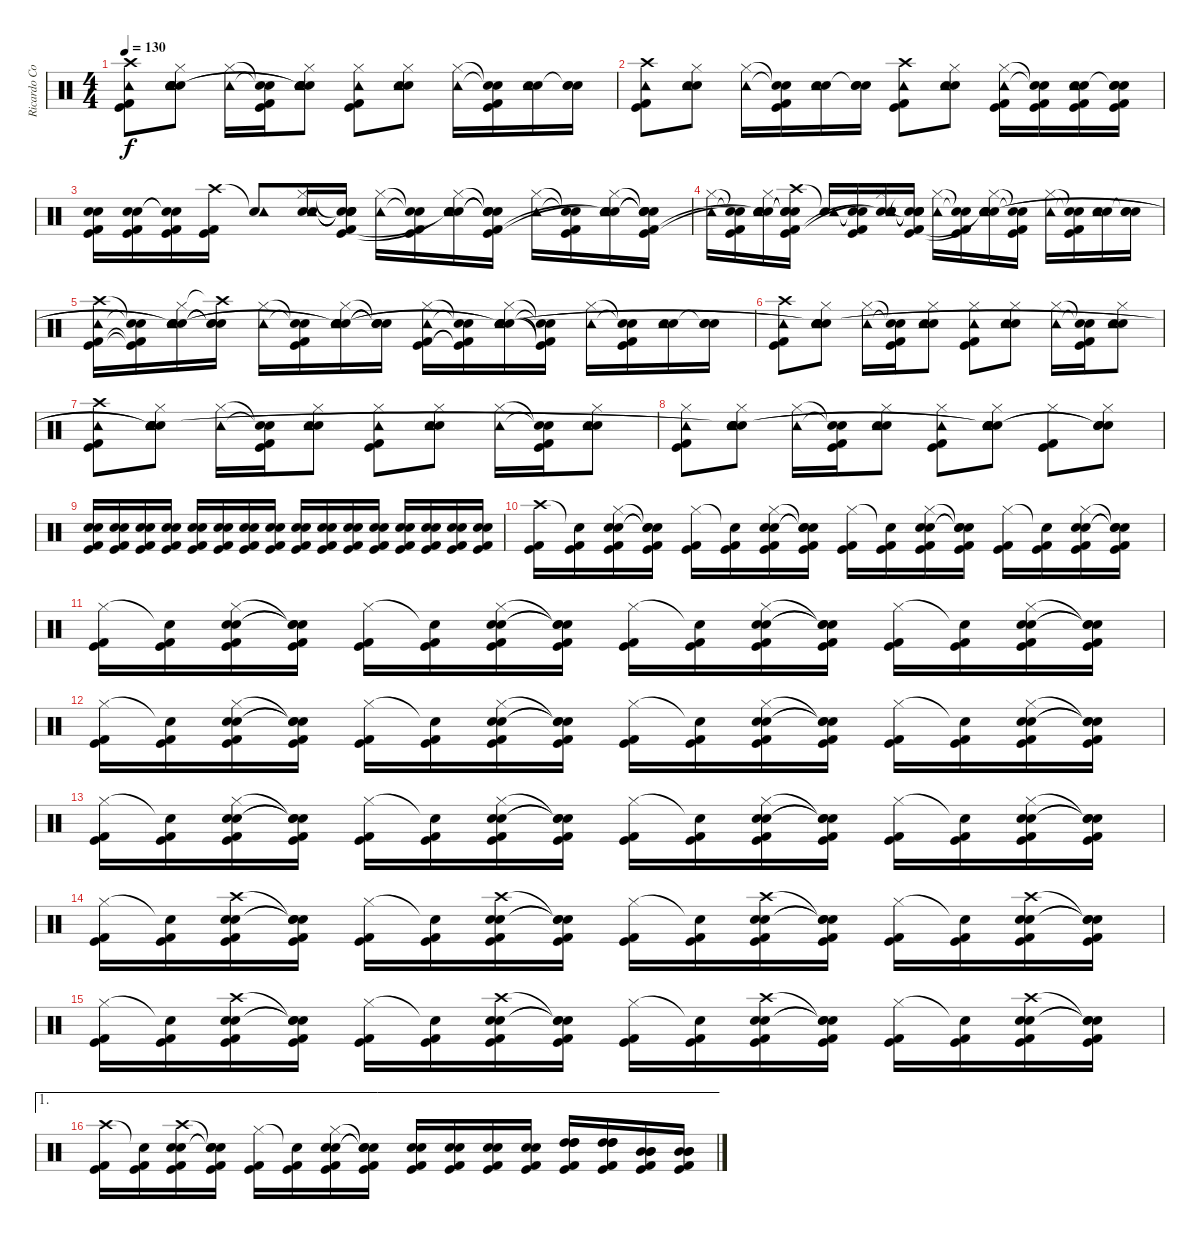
\track ("Ricardo Confessori" "Ricardo Co") {instrument percussion}
\staff {score}
\articulation defaults
\ts (4 4)
\tempo 130
\clef neutral
\ks c
("Crash high (hit)" "Tambourine (hit)" "Kick (hit)" "Kick (hit) 2").8{dy f} ("Hi-Hat (closed)" "Electric Snare (hit)" "Snare (hit) 2" "Tambourine (hit)" "Snare (hit)"{t} "Snare (hit)"{t}).8 ("Hi-Hat (closed)" "Tambourine (hit)").16 ("Snare (hit)"{t} "Snare (hit)"{t} "Kick (hit) 2" "Kick (hit)").16 ("Hi-Hat (closed)" "Electric Snare (hit)" "Snare (hit) 2" "Tambourine (hit)" "Snare (hit)"{t} "Snare (hit)"{t}).8 ("Hi-Hat (closed)" "Tambourine (hit)" "Kick (hit)" "Kick (hit) 2").8 ("Hi-Hat (closed)" "Electric Snare (hit)" "Snare (hit) 2" "Tambourine (hit)").8 ("Hi-Hat (closed)" "Tambourine (hit)").16 ("Snare (hit)"{t} "Snare (hit)"{t} "Kick (hit)" "Kick (hit) 2").16 ("Electric Snare (hit)" "Snare (hit) 2" "Tambourine (hit)").16 ("Electric Snare (hit)" "Snare (hit) 2" "Snare (hit)"{t}).16 |
("Crash high (hit)" "Tambourine (hit)" "Kick (hit)" "Kick (hit) 2").8 ("Hi-Hat (closed)" "Electric Snare (hit)" "Snare (hit) 2" "Tambourine (hit)").8 ("Hi-Hat (closed)" "Tambourine (hit)").16 ("Snare (hit)"{t} "Snare (hit)"{t} "Kick (hit)" "Kick (hit) 2").16 ("Electric Snare (hit)" "Snare (hit) 2" "Tambourine (hit)").16 ("Electric Snare (hit)" "Snare (hit) 2" "Snare (hit)"{t}).16 ("Crash high (hit)" "Tambourine (hit)" "Kick (hit) 2" "Kick (hit)").8 ("Hi-Hat (closed)" "Electric Snare (hit)" "Snare (hit) 2" "Tambourine (hit)").8 ("Hi-Hat (closed)" "Tambourine (hit)" "Kick (hit)" "Kick (hit) 2").16 ("Snare (hit)"{t} "Snare (hit)"{t} "Kick (hit)" "Kick (hit) 2").16 ("Electric Snare (hit)" "Snare (hit) 2" "Tambourine (hit)" "Kick (hit)" "Kick (hit) 2").16 ("Electric Snare (hit)" "Snare (hit) 2" "Snare (hit)"{t} "Kick (hit) 2" "Kick (hit)").16 |
("Electric Snare (hit)" "Snare (hit) 2" "Kick (hit)" "Kick (hit) 2").16 ("Electric Snare (hit)" "Snare (hit) 2" "Kick (hit)" "Kick (hit) 2").16 ("Snare (hit)"{t} "Snare (hit)"{t} "Kick (hit)" "Kick (hit) 2").16 ("Crash high (hit)" "Kick (hit)" "Kick (hit) 2").16 ("Snare (hit)"{t} "Tambourine (hit)").8 ("Hi-Hat (closed)" "Electric Snare (hit)" "Snare (hit) 2" "Tambourine (hit)").16 ("Snare (hit)"{t} "Snare (hit)"{t} "Snare (hit)"{t} "Snare (hit)"{t} "Kick (hit) 2" "Kick (hit)").16 ("Hi-Hat (closed)" "Tambourine (hit)").16 ("Snare (hit)"{t} "Snare (hit)"{t} "Kick (hit)" "Kick (hit) 2").16 ("Hi-Hat (closed)" "Electric Snare (hit)" "Snare (hit) 2" "Tambourine (hit)" "Snare (hit)"{t} "Snare (hit)"{t}).16 ("Snare (hit)"{t} "Snare (hit) 2"{t} "Snare (hit)"{t} "Snare (hit)"{t} "Kick (hit)" "Kick (hit) 2").16 ("Hi-Hat (closed)" "Tambourine (hit)").16 ("Snare (hit)"{t} "Snare (hit)"{t} "Kick (hit)" "Kick (hit) 2").16 ("Hi-Hat (closed)" "Electric Snare (hit)" "Snare (hit) 2" "Tambourine (hit)" "Snare (hit)"{t} "Snare (hit)"{t}).16 ("Snare (hit)"{t} "Snare (hit)"{t} "Snare (hit)"{t} "Snare (hit)"{t} "Kick (hit)" "Kick (hit) 2").16 |
("Hi-Hat (closed)" "Tambourine (hit)").16 ("Snare (hit)"{t} "Snare (hit)"{t} "Kick (hit) 2" "Kick (hit)").16 ("Hi-Hat (closed)" "Electric Snare (hit)" "Snare (hit) 2" "Tambourine (hit)" "Snare (hit)"{t} "Snare (hit)"{t}).16 ("Crash high (hit)" "Snare (hit)"{t} "Snare (hit)"{t} "Snare (hit)"{t} "Kick (hit) 2" "Kick (hit)").16 ("Snare (hit)"{t} "Tambourine (hit)").16 ("Snare (hit)"{t} "Snare (hit)"{t} "Kick (hit)" "Kick (hit) 2").16 ("Hi-Hat (closed)" "Electric Snare (hit)" "Snare (hit) 2" "Tambourine (hit)" "Snare (hit)"{t} "Snare (hit)"{t}).16 ("Snare (hit)"{t} "Snare (hit)"{t} "Snare (hit)"{t} "Snare (hit)"{t} "Kick (hit) 2" "Kick (hit)").16 ("Hi-Hat (closed)" "Tambourine (hit)").16 ("Snare (hit)"{t} "Snare (hit)"{t} "Kick (hit)" "Kick (hit) 2").16 ("Hi-Hat (closed)" "Electric Snare (hit)" "Snare (hit) 2" "Tambourine (hit)" "Snare (hit)"{t} "Snare (hit)"{t}).16 ("Snare (hit)"{t} "Snare (hit)"{t} "Kick (hit)" "Kick (hit) 2").16 ("Hi-Hat (closed)" "Tambourine (hit)").16 ("Snare (hit)"{t} "Snare (hit)"{t} "Kick (hit) 2" "Kick (hit)").16 ("Electric Snare (hit)" "Snare (hit) 2" "Tambourine (hit)").16 ("Electric Snare (hit)" "Snare (hit) 2" "Snare (hit)"{t}).16 |
("Crash high (hit)" "Tambourine (hit)" "Kick (hit) 2" "Kick (hit)").16 ("Snare (hit)"{t} "Snare (hit)"{t} "Kick (hit) 2"{t} "Kick (hit)"{t}).16 ("Hi-Hat (closed)" "Electric Snare (hit)" "Snare (hit) 2" "Tambourine (hit)" "Snare (hit)"{t} "Snare (hit)"{t}).16 ("Crash high (hit)"{t} "Snare (hit)"{t} "Snare (hit)"{t} "Snare (hit)"{t}).16 ("Hi-Hat (closed)" "Tambourine (hit)").16 ("Snare (hit)"{t} "Snare (hit)"{t} "Kick (hit)" "Kick (hit) 2").16 ("Hi-Hat (closed)" "Electric Snare (hit)" "Snare (hit) 2" "Tambourine (hit)" "Snare (hit)"{t} "Snare (hit)"{t}).16 ("Snare (hit)"{t} "Snare (hit)"{t} "Snare (hit)"{t} "Snare (hit)"{t}).16 ("Hi-Hat (closed)" "Tambourine (hit)" "Kick (hit) 2" "Kick (hit)").16 ("Snare (hit)"{t} "Snare (hit)"{t} "Kick (hit)"{t} "Kick (hit) 2"{t}).16 ("Hi-Hat (closed)" "Electric Snare (hit)" "Snare (hit) 2" "Tambourine (hit)" "Snare (hit)"{t} "Snare (hit)"{t}).16 ("Snare (hit)"{t} "Snare (hit)"{t} "Kick (hit)"{t} "Kick (hit) 2"{t}).16 ("Hi-Hat (closed)" "Tambourine (hit)").16 ("Snare (hit)"{t} "Snare (hit)"{t} "Kick (hit) 2" "Kick (hit)").16 ("Electric Snare (hit)" "Snare (hit) 2" "Tambourine (hit)").16 ("Electric Snare (hit)" "Snare (hit) 2" "Snare (hit)"{t}).16 |
("Crash high (hit)" "Tambourine (hit)" "Kick (hit) 2" "Kick (hit)").8 ("Hi-Hat (closed)" "Electric Snare (hit)" "Snare (hit) 2" "Tambourine (hit)" "Snare (hit)"{t} "Snare (hit)"{t}).8 ("Hi-Hat (closed)" "Tambourine (hit)").16 ("Snare (hit)"{t} "Snare (hit)"{t} "Kick (hit)" "Kick (hit) 2").16 ("Hi-Hat (closed)" "Electric Snare (hit)" "Snare (hit) 2" "Tambourine (hit)").8 ("Hi-Hat (closed)" "Tambourine (hit)" "Kick (hit)" "Kick (hit) 2").8 ("Hi-Hat (closed)" "Electric Snare (hit)" "Snare (hit) 2" "Tambourine (hit)").8 ("Hi-Hat (closed)" "Tambourine (hit)").16 ("Snare (hit)"{t} "Snare (hit)"{t} "Kick (hit)" "Kick (hit) 2").16 ("Hi-Hat (closed)" "Electric Snare (hit)" "Snare (hit) 2" "Tambourine (hit)").8 |
("Crash high (hit)" "Tambourine (hit)" "Kick (hit) 2" "Kick (hit)").8 ("Hi-Hat (closed)" "Electric Snare (hit)" "Snare (hit) 2" "Tambourine (hit)" "Snare (hit)"{t} "Snare (hit)"{t}).8 ("Hi-Hat (closed)" "Tambourine (hit)").16 ("Snare (hit)"{t} "Snare (hit)"{t} "Kick (hit)" "Kick (hit) 2").16 ("Hi-Hat (closed)" "Electric Snare (hit)" "Snare (hit) 2" "Tambourine (hit)").8 ("Hi-Hat (closed)" "Tambourine (hit)" "Kick (hit)" "Kick (hit) 2").8 ("Hi-Hat (closed)" "Electric Snare (hit)" "Snare (hit) 2" "Tambourine (hit)").8 ("Hi-Hat (closed)" "Tambourine (hit)").16 ("Snare (hit)"{t} "Snare (hit)"{t} "Kick (hit)" "Kick (hit) 2").16 ("Hi-Hat (closed)" "Electric Snare (hit)" "Snare (hit) 2" "Tambourine (hit)").8 |
("Hi-Hat (closed)" "Tambourine (hit)" "Kick (hit)" "Kick (hit) 2").8 ("Hi-Hat (closed)" "Electric Snare (hit)" "Snare (hit) 2" "Tambourine (hit)" "Snare (hit)"{t} "Snare (hit)"{t}).8 ("Hi-Hat (closed)" "Tambourine (hit)").16 ("Snare (hit)"{t} "Snare (hit)"{t} "Kick (hit) 2" "Kick (hit)").16 ("Hi-Hat (closed)" "Electric Snare (hit)" "Snare (hit) 2" "Tambourine (hit)").8 ("Hi-Hat (closed)" "Tambourine (hit)" "Kick (hit) 2" "Kick (hit)").8 ("Hi-Hat (closed)" "Electric Snare (hit)" "Snare (hit) 2" "Tambourine (hit)" "Snare (hit)"{t} "Snare (hit)"{t}).8 ("Hi-Hat (closed)" "Kick (hit)" "Kick (hit) 2").8 ("Hi-Hat (closed)" "Electric Snare (hit)" "Snare (hit) 2" "Snare (hit)"{t} "Snare (hit)"{t}).8 |
("Electric Snare (hit)" "Snare (hit) 2" "Kick (hit) 2" "Kick (hit)").16 ("Electric Snare (hit)" "Snare (hit) 2" "Kick (hit) 2" "Kick (hit)").16 ("Electric Snare (hit)" "Snare (hit) 2" "Kick (hit) 2" "Kick (hit)").16 ("Electric Snare (hit)" "Snare (hit) 2" "Kick (hit) 2" "Kick (hit)").16 ("Electric Snare (hit)" "Snare (hit) 2" "Kick (hit) 2" "Kick (hit)").16 ("Electric Snare (hit)" "Snare (hit) 2" "Kick (hit) 2" "Kick (hit)").16 ("Electric Snare (hit)" "Snare (hit) 2" "Kick (hit) 2" "Kick (hit)").16 ("Electric Snare (hit)" "Snare (hit) 2" "Kick (hit) 2" "Kick (hit)").16 ("Electric Snare (hit)" "Snare (hit) 2" "Kick (hit) 2" "Kick (hit)").16 ("Electric Snare (hit)" "Snare (hit) 2" "Kick (hit) 2" "Kick (hit)").16 ("Electric Snare (hit)" "Snare (hit) 2" "Kick (hit) 2" "Kick (hit)").16 ("Electric Snare (hit)" "Snare (hit) 2" "Kick (hit) 2" "Kick (hit)").16 ("Electric Snare (hit)" "Snare (hit) 2" "Kick (hit) 2" "Kick (hit)").16 ("Electric Snare (hit)" "Snare (hit) 2" "Kick (hit) 2" "Kick (hit)").16 ("Electric Snare (hit)" "Snare (hit) 2" "Kick (hit) 2" "Kick (hit)").16 ("Electric Snare (hit)" "Snare (hit) 2" "Kick (hit) 2" "Kick (hit)").16 |
("Crash high (hit)" "Kick (hit) 2" "Kick (hit)").16 ("Snare (hit)"{t} "Kick (hit) 2" "Kick (hit)").16 ("Hi-Hat (closed)" "Electric Snare (hit)" "Snare (hit) 2" "Kick (hit) 2" "Kick (hit)").16 ("Snare (hit)"{t} "Snare (hit)"{t} "Snare (hit)"{t} "Kick (hit) 2" "Kick (hit)").16 ("Hi-Hat (closed)" "Kick (hit)" "Kick (hit) 2").16 ("Snare (hit)"{t} "Kick (hit) 2" "Kick (hit)").16 ("Hi-Hat (closed)" "Electric Snare (hit)" "Snare (hit) 2" "Kick (hit) 2" "Kick (hit)").16 ("Snare (hit)"{t} "Snare (hit)"{t} "Snare (hit)"{t} "Kick (hit) 2" "Kick (hit)").16 ("Hi-Hat (closed)" "Kick (hit) 2" "Kick (hit)").16 ("Snare (hit)"{t} "Kick (hit) 2" "Kick (hit)").16 ("Hi-Hat (closed)" "Electric Snare (hit)" "Snare (hit) 2" "Kick (hit) 2" "Kick (hit)").16 ("Snare (hit)"{t} "Snare (hit)"{t} "Snare (hit)"{t} "Kick (hit) 2" "Kick (hit)").16 ("Hi-Hat (closed)" "Kick (hit) 2" "Kick (hit)").16 ("Snare (hit)"{t} "Kick (hit) 2" "Kick (hit)").16 ("Hi-Hat (closed)" "Electric Snare (hit)" "Snare (hit) 2" "Kick (hit) 2" "Kick (hit)").16 ("Snare (hit)"{t} "Snare (hit)"{t} "Snare (hit)"{t} "Kick (hit) 2" "Kick (hit)").16 |
("Hi-Hat (closed)" "Kick (hit) 2" "Kick (hit)").16 ("Snare (hit)"{t} "Kick (hit) 2" "Kick (hit)").16 ("Hi-Hat (closed)" "Electric Snare (hit)" "Snare (hit) 2" "Kick (hit) 2" "Kick (hit)").16 ("Snare (hit)"{t} "Snare (hit)"{t} "Snare (hit)"{t} "Kick (hit) 2" "Kick (hit)").16 ("Hi-Hat (closed)" "Kick (hit) 2" "Kick (hit)").16 ("Snare (hit)"{t} "Kick (hit) 2" "Kick (hit)").16 ("Hi-Hat (closed)" "Electric Snare (hit)" "Snare (hit) 2" "Kick (hit) 2" "Kick (hit)").16 ("Snare (hit)"{t} "Snare (hit)"{t} "Snare (hit)"{t} "Kick (hit) 2" "Kick (hit)").16 ("Hi-Hat (closed)" "Kick (hit) 2" "Kick (hit)").16 ("Snare (hit)"{t} "Kick (hit) 2" "Kick (hit)").16 ("Hi-Hat (closed)" "Electric Snare (hit)" "Snare (hit) 2" "Kick (hit) 2" "Kick (hit)").16 ("Snare (hit)"{t} "Snare (hit)"{t} "Snare (hit)"{t} "Kick (hit) 2" "Kick (hit)").16 ("Hi-Hat (closed)" "Kick (hit) 2" "Kick (hit)").16 ("Snare (hit)"{t} "Kick (hit) 2" "Kick (hit)").16 ("Hi-Hat (closed)" "Electric Snare (hit)" "Snare (hit) 2" "Kick (hit) 2" "Kick (hit)").16 ("Snare (hit)"{t} "Snare (hit)"{t} "Snare (hit)"{t} "Kick (hit) 2" "Kick (hit)").16 |
("Hi-Hat (closed)" "Kick (hit) 2" "Kick (hit)").16 ("Snare (hit)"{t} "Kick (hit) 2" "Kick (hit)").16 ("Hi-Hat (closed)" "Electric Snare (hit)" "Snare (hit) 2" "Kick (hit) 2" "Kick (hit)").16 ("Snare (hit)"{t} "Snare (hit)"{t} "Snare (hit)"{t} "Kick (hit) 2" "Kick (hit)").16 ("Hi-Hat (closed)" "Kick (hit) 2" "Kick (hit)").16 ("Snare (hit)"{t} "Kick (hit) 2" "Kick (hit)").16 ("Hi-Hat (closed)" "Electric Snare (hit)" "Snare (hit) 2" "Kick (hit) 2" "Kick (hit)").16 ("Snare (hit)"{t} "Snare (hit)"{t} "Snare (hit)"{t} "Kick (hit) 2" "Kick (hit)").16 ("Hi-Hat (closed)" "Kick (hit) 2" "Kick (hit)").16 ("Snare (hit)"{t} "Kick (hit) 2" "Kick (hit)").16 ("Hi-Hat (closed)" "Electric Snare (hit)" "Snare (hit) 2" "Kick (hit) 2" "Kick (hit)").16 ("Snare (hit)"{t} "Snare (hit)"{t} "Snare (hit)"{t} "Kick (hit) 2" "Kick (hit)").16 ("Hi-Hat (closed)" "Kick (hit) 2" "Kick (hit)").16 ("Snare (hit)"{t} "Kick (hit) 2" "Kick (hit)").16 ("Hi-Hat (closed)" "Electric Snare (hit)" "Snare (hit) 2" "Kick (hit) 2" "Kick (hit)").16 ("Snare (hit)"{t} "Snare (hit)"{t} "Snare (hit)"{t} "Kick (hit) 2" "Kick (hit)").16 |
("Hi-Hat (closed)" "Kick (hit) 2" "Kick (hit)").16 ("Snare (hit)"{t} "Kick (hit) 2" "Kick (hit)").16 ("Hi-Hat (closed)" "Electric Snare (hit)" "Snare (hit) 2" "Kick (hit) 2" "Kick (hit)").16 ("Snare (hit)"{t} "Snare (hit)"{t} "Snare (hit)"{t} "Kick (hit) 2" "Kick (hit)").16 ("Hi-Hat (closed)" "Kick (hit) 2" "Kick (hit)").16 ("Snare (hit)"{t} "Kick (hit) 2" "Kick (hit)").16 ("Hi-Hat (closed)" "Electric Snare (hit)" "Snare (hit) 2" "Kick (hit) 2" "Kick (hit)").16 ("Snare (hit)"{t} "Snare (hit)"{t} "Snare (hit)"{t} "Kick (hit) 2" "Kick (hit)").16 ("Hi-Hat (closed)" "Kick (hit) 2" "Kick (hit)").16 ("Snare (hit)"{t} "Kick (hit) 2" "Kick (hit)").16 ("Hi-Hat (closed)" "Electric Snare (hit)" "Snare (hit) 2" "Kick (hit) 2" "Kick (hit)").16 ("Snare (hit)"{t} "Snare (hit)"{t} "Snare (hit)"{t} "Kick (hit) 2" "Kick (hit)").16 ("Hi-Hat (closed)" "Kick (hit) 2" "Kick (hit)").16 ("Snare (hit)"{t} "Kick (hit) 2" "Kick (hit)").16 ("Hi-Hat (closed)" "Electric Snare (hit)" "Snare (hit) 2" "Kick (hit) 2" "Kick (hit)").16 ("Snare (hit)"{t} "Snare (hit)"{t} "Snare (hit)"{t} "Kick (hit) 2" "Kick (hit)").16 |
("Hi-Hat (closed)" "Kick (hit) 2" "Kick (hit)").16 ("Snare (hit)"{t} "Kick (hit) 2" "Kick (hit)").16 ("Crash high (hit)" "Electric Snare (hit)" "Snare (hit) 2" "Kick (hit) 2" "Kick (hit)").16 ("Snare (hit)"{t} "Snare (hit)"{t} "Snare (hit)"{t} "Kick (hit) 2" "Kick (hit)").16 ("Hi-Hat (closed)" "Kick (hit) 2" "Kick (hit)").16 ("Snare (hit)"{t} "Kick (hit) 2" "Kick (hit)").16 ("Crash high (hit)" "Electric Snare (hit)" "Snare (hit) 2" "Kick (hit) 2" "Kick (hit)").16 ("Snare (hit)"{t} "Snare (hit)"{t} "Snare (hit)"{t} "Kick (hit) 2" "Kick (hit)").16 ("Hi-Hat (closed)" "Kick (hit) 2" "Kick (hit)").16 ("Snare (hit)"{t} "Kick (hit) 2" "Kick (hit)").16 ("Crash high (hit)" "Electric Snare (hit)" "Snare (hit) 2" "Kick (hit) 2" "Kick (hit)").16 ("Snare (hit)"{t} "Snare (hit)"{t} "Snare (hit)"{t} "Kick (hit) 2" "Kick (hit)").16 ("Hi-Hat (closed)" "Kick (hit) 2" "Kick (hit)").16 ("Snare (hit)"{t} "Kick (hit) 2" "Kick (hit)").16 ("Crash high (hit)" "Electric Snare (hit)" "Snare (hit) 2" "Kick (hit) 2" "Kick (hit)").16 ("Snare (hit)"{t} "Snare (hit)"{t} "Snare (hit)"{t} "Kick (hit) 2" "Kick (hit)").16 |
("Hi-Hat (closed)" "Kick (hit) 2" "Kick (hit)").16 ("Snare (hit)"{t} "Kick (hit) 2" "Kick (hit)").16 ("Crash high (hit)" "Electric Snare (hit)" "Snare (hit) 2" "Kick (hit) 2" "Kick (hit)").16 ("Snare (hit)"{t} "Snare (hit)"{t} "Snare (hit)"{t} "Kick (hit) 2" "Kick (hit)").16 ("Hi-Hat (closed)" "Kick (hit) 2" "Kick (hit)").16 ("Snare (hit)"{t} "Kick (hit) 2" "Kick (hit)").16 ("Crash high (hit)" "Electric Snare (hit)" "Snare (hit) 2" "Kick (hit) 2" "Kick (hit)").16 ("Snare (hit)"{t} "Snare (hit)"{t} "Snare (hit)"{t} "Kick (hit) 2" "Kick (hit)").16 ("Hi-Hat (closed)" "Kick (hit) 2" "Kick (hit)").16 ("Snare (hit)"{t} "Kick (hit) 2" "Kick (hit)").16 ("Crash high (hit)" "Electric Snare (hit)" "Snare (hit) 2" "Kick (hit) 2" "Kick (hit)").16 ("Snare (hit)"{t} "Snare (hit)"{t} "Snare (hit)"{t} "Kick (hit) 2" "Kick (hit)").16 ("Hi-Hat (closed)" "Kick (hit) 2" "Kick (hit)").16 ("Snare (hit)"{t} "Kick (hit) 2" "Kick (hit)").16 ("Crash high (hit)" "Electric Snare (hit)" "Snare (hit) 2" "Kick (hit) 2" "Kick (hit)").16 ("Snare (hit)"{t} "Snare (hit)"{t} "Snare (hit)"{t} "Kick (hit) 2" "Kick (hit)").16 |
\ae 1
("Crash high (hit)" "Kick (hit) 2" "Kick (hit)").16 ("Snare (hit)"{t} "Kick (hit) 2" "Kick (hit)").16 ("Crash high (hit)" "Electric Snare (hit)" "Snare (hit) 2" "Kick (hit) 2" "Kick (hit)").16 ("Snare (hit)"{t} "Snare (hit)"{t} "Snare (hit)"{t} "Kick (hit) 2" "Kick (hit)").16 ("Hi-Hat (closed)" "Kick (hit) 2" "Kick (hit)").16 ("Snare (hit)"{t} "Kick (hit) 2" "Kick (hit)").16 ("Hi-Hat (closed)" "Electric Snare (hit)" "Snare (hit) 2" "Kick (hit) 2" "Kick (hit)").16 ("Snare (hit)"{t} "Snare (hit)"{t} "Snare (hit)"{t} "Kick (hit) 2" "Kick (hit)").16 ("Electric Snare (hit)" "Snare (hit) 2" "Kick (hit) 2" "Kick (hit)").16 ("Electric Snare (hit)" "Snare (hit) 2" "Kick (hit) 2" "Kick (hit)").16 ("Electric Snare (hit)" "Snare (hit) 2" "Kick (hit) 2" "Kick (hit)").16 ("Electric Snare (hit)" "Snare (hit) 2" "Kick (hit) 2" "Kick (hit)").16 ("High Tom (hit)" "High Tom (hit)" "High Tom (hit)" "Kick (hit) 2" "Kick (hit)").16 ("High Tom (hit)" "High Tom (hit)" "High Tom (hit)" "Kick (hit) 2" "Kick (hit)").16 ("Mid Tom (hit)" "Mid Tom (hit)" "Mid Tom (hit)" "Kick (hit) 2" "Kick (hit)").16 ("Mid Tom (hit)" "Mid Tom (hit)" "Mid Tom (hit)" "Kick (hit) 2" "Kick (hit)").16
